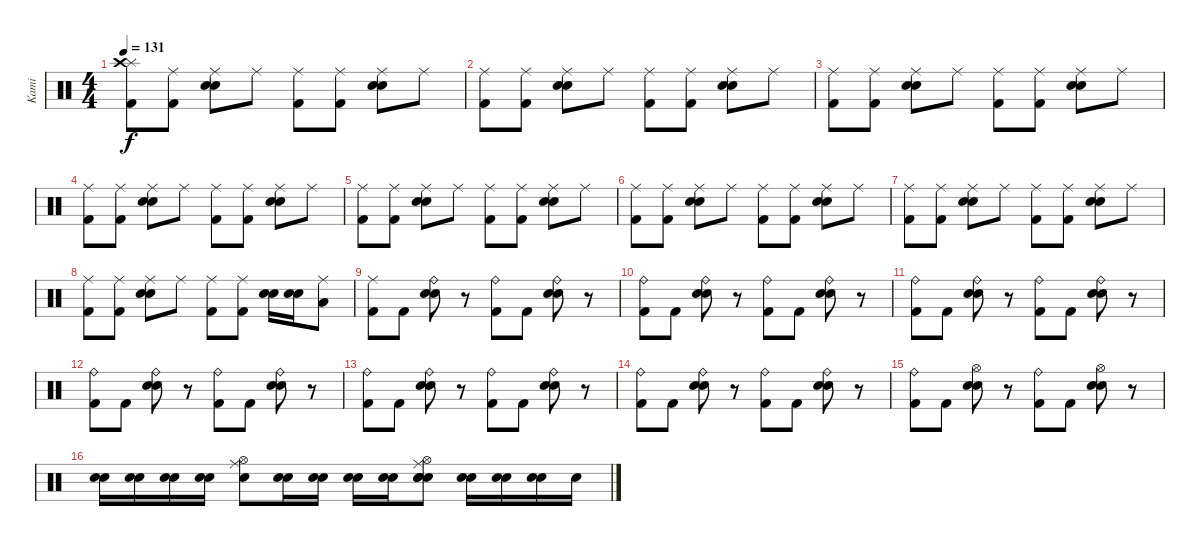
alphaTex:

\track ("Kami" "Kami") {instrument percussion}
\staff {score}
\articulation defaults
\ts (4 4)
\tempo 131
\clef neutral
\ks c
("Splash (hit)" "Kick (hit) 2" "Crash high (hit)").8{dy f} ("Ride (middle)" "Kick (hit) 2").8 ("Ride (middle)" "Electric Snare (hit)" "Electric Snare (hit)").8 "Ride (middle)".8 ("Ride (middle)" "Kick (hit) 2").8 ("Ride (middle)" "Kick (hit) 2").8 ("Ride (middle)" "Electric Snare (hit)" "Electric Snare (hit)").8 "Ride (middle)".8 |
("Ride (middle)" "Kick (hit) 2").8 ("Ride (middle)" "Kick (hit) 2").8 ("Ride (middle)" "Electric Snare (hit)" "Electric Snare (hit)").8 "Ride (middle)".8 ("Ride (middle)" "Kick (hit) 2").8 ("Ride (middle)" "Kick (hit) 2").8 ("Ride (middle)" "Electric Snare (hit)" "Electric Snare (hit)").8 "Ride (middle)".8 |
("Ride (middle)" "Kick (hit) 2").8 ("Ride (middle)" "Kick (hit) 2").8 ("Ride (middle)" "Electric Snare (hit)" "Electric Snare (hit)").8 "Ride (middle)".8 ("Ride (middle)" "Kick (hit) 2").8 ("Ride (middle)" "Kick (hit) 2").8 ("Ride (middle)" "Electric Snare (hit)" "Electric Snare (hit)").8 "Ride (middle)".8 |
("Ride (middle)" "Kick (hit) 2").8 ("Ride (middle)" "Kick (hit) 2").8 ("Ride (middle)" "Electric Snare (hit)" "Electric Snare (hit)").8 "Ride (middle)".8 ("Ride (middle)" "Kick (hit) 2").8 ("Ride (middle)" "Kick (hit) 2").8 ("Ride (middle)" "Electric Snare (hit)" "Electric Snare (hit)").8 "Ride (middle)".8 |
("Ride (middle)" "Kick (hit) 2").8 ("Ride (middle)" "Kick (hit) 2").8 ("Ride (middle)" "Electric Snare (hit)" "Electric Snare (hit)").8 "Ride (middle)".8 ("Ride (middle)" "Kick (hit) 2").8 ("Ride (middle)" "Kick (hit) 2").8 ("Ride (middle)" "Electric Snare (hit)" "Electric Snare (hit)").8 "Ride (middle)".8 |
("Ride (middle)" "Kick (hit) 2").8 ("Ride (middle)" "Kick (hit) 2").8 ("Ride (middle)" "Electric Snare (hit)" "Electric Snare (hit)").8 "Ride (middle)".8 ("Ride (middle)" "Kick (hit) 2").8 ("Ride (middle)" "Kick (hit) 2").8 ("Ride (middle)" "Electric Snare (hit)" "Electric Snare (hit)").8 "Ride (middle)".8 |
("Ride (middle)" "Kick (hit) 2").8 ("Ride (middle)" "Kick (hit) 2").8 ("Ride (middle)" "Electric Snare (hit)" "Electric Snare (hit)").8 "Ride (middle)".8 ("Ride (middle)" "Kick (hit) 2").8 ("Ride (middle)" "Kick (hit) 2").8 ("Ride (middle)" "Electric Snare (hit)" "Electric Snare (hit)").8 "Ride (middle)".8 |
("Ride (middle)" "Kick (hit) 2").8 ("Ride (middle)" "Kick (hit) 2").8 ("Ride (middle)" "Electric Snare (hit)" "Electric Snare (hit)").8 "Ride (middle)".8 ("Ride (middle)" "Kick (hit) 2").8 ("Ride (middle)" "Kick (hit) 2").8 ("Electric Snare (hit)" "Electric Snare (hit)").16 ("Electric Snare (hit)" "Electric Snare (hit)").16 ("Ride (middle)" "Low Tom (hit)").8 |
("Ride (middle)" "Kick (hit) 2").8 "Kick (hit) 2".8 ("Ride (bell)" "Electric Snare (hit)" "Electric Snare (hit)").8 r.8 ("Ride (bell)" "Kick (hit) 2").8 "Kick (hit) 2".8 ("Ride (bell)" "Electric Snare (hit)" "Electric Snare (hit)").8 r.8 |
("Ride (bell)" "Kick (hit) 2").8 "Kick (hit) 2".8 ("Ride (bell)" "Electric Snare (hit)" "Electric Snare (hit)").8 r.8 ("Ride (bell)" "Kick (hit) 2").8 "Kick (hit) 2".8 ("Ride (bell)" "Electric Snare (hit)" "Electric Snare (hit)").8 r.8 |
("Ride (bell)" "Kick (hit) 2").8 "Kick (hit) 2".8 ("Ride (bell)" "Electric Snare (hit)" "Electric Snare (hit)").8 r.8 ("Ride (bell)" "Kick (hit) 2").8 "Kick (hit) 2".8 ("Ride (bell)" "Electric Snare (hit)" "Electric Snare (hit)").8 r.8 |
("Ride (bell)" "Kick (hit) 2").8 "Kick (hit) 2".8 ("Ride (bell)" "Electric Snare (hit)" "Electric Snare (hit)").8 r.8 ("Ride (bell)" "Kick (hit) 2").8 "Kick (hit) 2".8 ("Ride (bell)" "Electric Snare (hit)" "Electric Snare (hit)").8 r.8 |
("Ride (bell)" "Kick (hit) 2").8 "Kick (hit) 2".8 ("Ride (bell)" "Electric Snare (hit)" "Electric Snare (hit)").8 r.8 ("Ride (bell)" "Kick (hit) 2").8 "Kick (hit) 2".8 ("Ride (bell)" "Electric Snare (hit)" "Electric Snare (hit)").8 r.8 |
("Ride (bell)" "Kick (hit) 2").8 "Kick (hit) 2".8 ("Ride (bell)" "Electric Snare (hit)" "Electric Snare (hit)").8 r.8 ("Ride (bell)" "Kick (hit) 2").8 "Kick (hit) 2".8 ("Ride (bell)" "Electric Snare (hit)" "Electric Snare (hit)").8 r.8 |
("Ride (bell)" "Kick (hit) 2").8 "Kick (hit) 2".8 ("Hi-Hat (open)" "Electric Snare (hit)" "Electric Snare (hit)").8 r.8 ("Ride (bell)" "Kick (hit) 2").8 "Kick (hit) 2".8 ("Hi-Hat (open)" "Electric Snare (hit)" "Electric Snare (hit)").8 r.8 |
("Electric Snare (hit)" "Electric Snare (hit)").16 ("Electric Snare (hit)" "Electric Snare (hit)").16 ("Electric Snare (hit)" "Electric Snare (hit)").16 ("Electric Snare (hit)" "Electric Snare (hit)").16 ("Ride (middle)" "Hi-Hat (open)" "Electric Snare (hit)").8 ("Electric Snare (hit)" "Electric Snare (hit)").16 ("Electric Snare (hit)" "Electric Snare (hit)").16 ("Electric Snare (hit)" "Electric Snare (hit)").16 ("Electric Snare (hit)" "Electric Snare (hit)").16 ("Ride (middle)" "Electric Snare (hit)" "Electric Snare (hit)" "Electric Snare (hit)" "Hi-Hat (open)").8 ("Electric Snare (hit)" "Electric Snare (hit)").16 ("Electric Snare (hit)" "Electric Snare (hit)").16 ("Electric Snare (hit)" "Electric Snare (hit)").16 "Electric Snare (hit)".16
